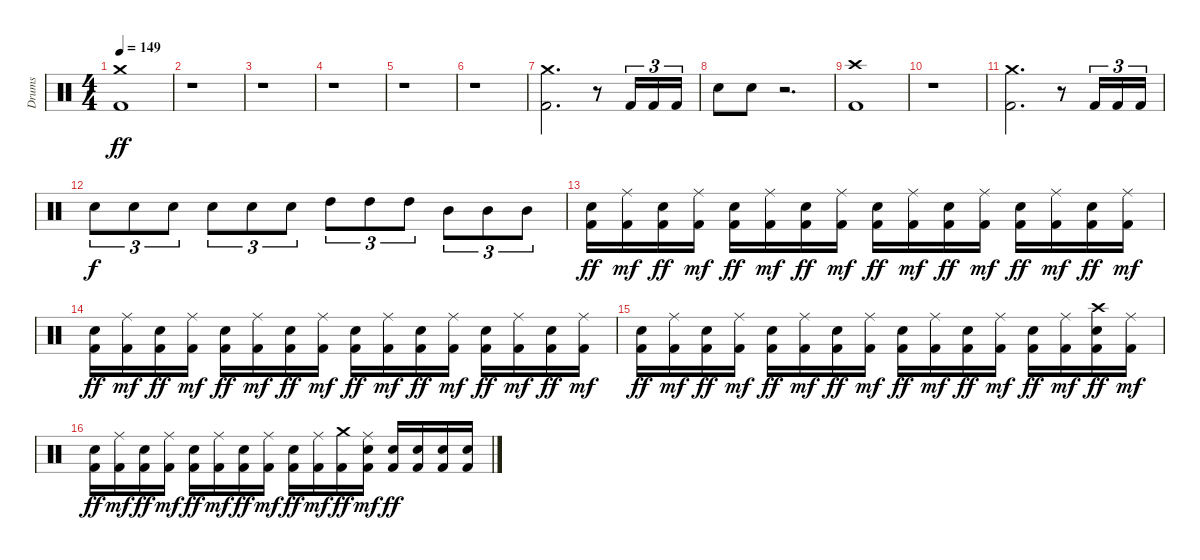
\track ("Drums" "Drums") {instrument percussion}
\staff {score}
\articulation defaults
\ts (4 4)
\tempo 149
\clef neutral
\ks c
("Crash medium (hit)" "Kick (hit) 2").1{dy ff} |
r.1 |
r.1 |
r.1 |
r.1 |
r.1 |
("Crash medium (hit)" "Kick (hit) 2").2{d} r.8 "Kick (hit) 2".16{tu (3 2)} "Kick (hit) 2".16{tu (3 2)} "Kick (hit) 2".16{tu (3 2)} |
"Snare (hit) 2".8 "Snare (hit) 2".8 r.2{d} |
("Crash high (hit)" "Kick (hit) 2").1 |
r.1 |
("Crash medium (hit)" "Kick (hit) 2").2{d} r.8 "Kick (hit) 2".16{tu (3 2)} "Kick (hit) 2".16{tu (3 2)} "Kick (hit) 2".16{tu (3 2)} |
"Snare (hit) 2".8{tu (3 2) dy f} "Snare (hit) 2".8{tu (3 2)} "Snare (hit) 2".8{tu (3 2)} "Snare (hit) 2".8{tu (3 2)} "Snare (hit) 2".8{tu (3 2)} "Snare (hit) 2".8{tu (3 2)} "High Tom (hit)".8{tu (3 2)} "High Tom (hit)".8{tu (3 2)} "High Tom (hit)".8{tu (3 2)} "Mid Tom (hit)".8{tu (3 2)} "Mid Tom (hit)".8{tu (3 2)} "Mid Tom (hit)".8{tu (3 2)} |
("Snare (hit) 2" "Kick (hit) 2").16{dy ff} ("Kick (hit) 2" "Ride (middle)").16{dy mf} ("Snare (hit) 2" "Kick (hit) 2").16{dy ff} ("Kick (hit) 2" "Ride (middle)").16{dy mf} ("Snare (hit) 2" "Kick (hit) 2").16{dy ff} ("Kick (hit) 2" "Ride (middle)").16{dy mf} ("Snare (hit) 2" "Kick (hit) 2").16{dy ff} ("Kick (hit) 2" "Ride (middle)").16{dy mf} ("Snare (hit) 2" "Kick (hit) 2").16{dy ff} ("Kick (hit) 2" "Ride (middle)").16{dy mf} ("Snare (hit) 2" "Kick (hit) 2").16{dy ff} ("Kick (hit) 2" "Ride (middle)").16{dy mf} ("Snare (hit) 2" "Kick (hit) 2").16{dy ff} ("Kick (hit) 2" "Ride (middle)").16{dy mf} ("Snare (hit) 2" "Kick (hit) 2").16{dy ff} ("Kick (hit) 2" "Ride (middle)").16{dy mf} |
("Snare (hit) 2" "Kick (hit) 2").16{dy ff} ("Kick (hit) 2" "Ride (middle)").16{dy mf} ("Snare (hit) 2" "Kick (hit) 2").16{dy ff} ("Kick (hit) 2" "Ride (middle)").16{dy mf} ("Snare (hit) 2" "Kick (hit) 2").16{dy ff} ("Kick (hit) 2" "Ride (middle)").16{dy mf} ("Snare (hit) 2" "Kick (hit) 2").16{dy ff} ("Kick (hit) 2" "Ride (middle)").16{dy mf} ("Snare (hit) 2" "Kick (hit) 2").16{dy ff} ("Kick (hit) 2" "Ride (middle)").16{dy mf} ("Snare (hit) 2" "Kick (hit) 2").16{dy ff} ("Kick (hit) 2" "Ride (middle)").16{dy mf} ("Snare (hit) 2" "Kick (hit) 2").16{dy ff} ("Kick (hit) 2" "Ride (middle)").16{dy mf} ("Snare (hit) 2" "Kick (hit) 2").16{dy ff} ("Kick (hit) 2" "Ride (middle)").16{dy mf} |
("Snare (hit) 2" "Kick (hit) 2").16{dy ff} ("Kick (hit) 2" "Ride (middle)").16{dy mf} ("Snare (hit) 2" "Kick (hit) 2").16{dy ff} ("Kick (hit) 2" "Ride (middle)").16{dy mf} ("Snare (hit) 2" "Kick (hit) 2").16{dy ff} ("Kick (hit) 2" "Ride (middle)").16{dy mf} ("Snare (hit) 2" "Kick (hit) 2").16{dy ff} ("Kick (hit) 2" "Ride (middle)").16{dy mf} ("Snare (hit) 2" "Kick (hit) 2").16{dy ff} ("Kick (hit) 2" "Ride (middle)").16{dy mf} ("Snare (hit) 2" "Kick (hit) 2").16{dy ff} ("Kick (hit) 2" "Ride (middle)").16{dy mf} ("Snare (hit) 2" "Kick (hit) 2").16{dy ff} ("Kick (hit) 2" "Ride (middle)").16{dy mf} ("Crash high (hit)" "Snare (hit) 2" "Kick (hit) 2").16{dy ff} ("Kick (hit) 2" "Ride (middle)").16{dy mf} |
("Snare (hit) 2" "Kick (hit) 2").16{dy ff} ("Kick (hit) 2" "Ride (middle)").16{dy mf} ("Snare (hit) 2" "Kick (hit) 2").16{dy ff} ("Kick (hit) 2" "Ride (middle)").16{dy mf} ("Snare (hit) 2" "Kick (hit) 2").16{dy ff} ("Kick (hit) 2" "Ride (middle)").16{dy mf} ("Snare (hit) 2" "Kick (hit) 2").16{dy ff} ("Kick (hit) 2" "Ride (middle)").16{dy mf} ("Snare (hit) 2" "Kick (hit) 2").16{dy ff} ("Kick (hit) 2" "Ride (middle)").16{dy mf} ("Crash medium (hit)" "Kick (hit) 2").16{dy ff} ("Snare (hit) 2" "Kick (hit) 2" "Ride (middle)").16{dy mf} ("Snare (hit) 2" "Kick (hit) 2").16{dy ff} ("Snare (hit) 2" "Kick (hit) 2").16 ("Snare (hit) 2" "Kick (hit) 2").16 ("Snare (hit) 2" "Kick (hit) 2").16
